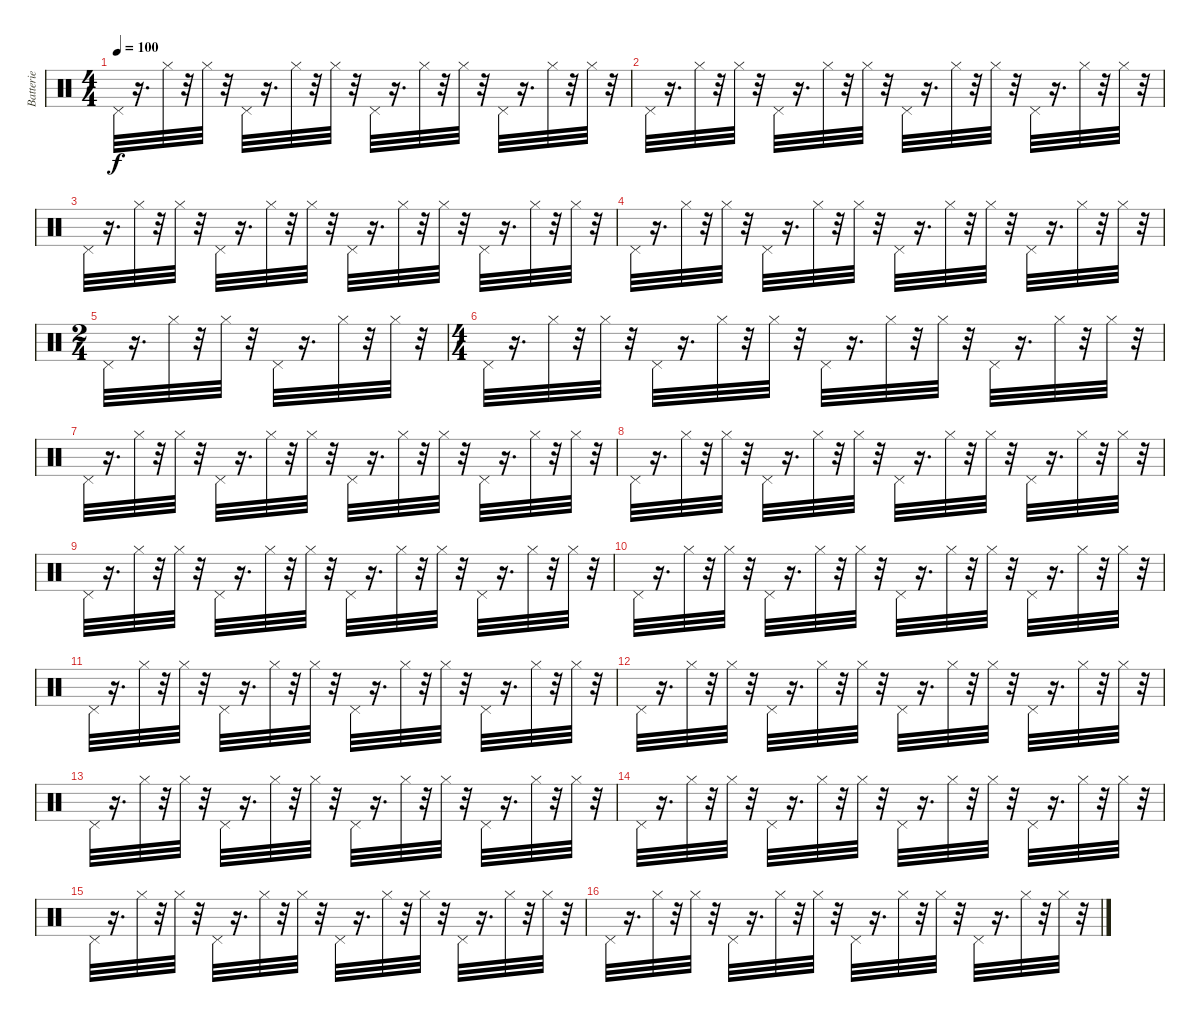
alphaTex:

\track ("Batterie" "Batterie") {instrument percussion}
\staff {score}
\articulation defaults
\ts (4 4)
\tempo 100
\clef neutral
\ks c "Pedal Hi-Hat (hit)".32{dy f}
r.16{d} "Hi-Hat (closed)".32 r.32 "Hi-Hat (closed)".32 r.32 "Pedal Hi-Hat (hit)".32 r.16{d} "Hi-Hat (closed)".32 r.32 "Hi-Hat (closed)".32 r.32 "Pedal Hi-Hat (hit)".32 r.16{d} "Hi-Hat (closed)".32 r.32 "Hi-Hat (closed)".32 r.32 "Pedal Hi-Hat (hit)".32 r.16{d} "Hi-Hat (closed)".32 r.32 "Hi-Hat (closed)".32 r.32 |
"Pedal Hi-Hat (hit)".32 r.16{d} "Hi-Hat (closed)".32 r.32 "Hi-Hat (closed)".32 r.32 "Pedal Hi-Hat (hit)".32 r.16{d} "Hi-Hat (closed)".32 r.32 "Hi-Hat (closed)".32 r.32 "Pedal Hi-Hat (hit)".32 r.16{d} "Hi-Hat (closed)".32 r.32 "Hi-Hat (closed)".32 r.32 "Pedal Hi-Hat (hit)".32 r.16{d} "Hi-Hat (closed)".32 r.32 "Hi-Hat (closed)".32 r.32 |
"Pedal Hi-Hat (hit)".32 r.16{d} "Hi-Hat (closed)".32 r.32 "Hi-Hat (closed)".32 r.32 "Pedal Hi-Hat (hit)".32 r.16{d} "Hi-Hat (closed)".32 r.32 "Hi-Hat (closed)".32 r.32 "Pedal Hi-Hat (hit)".32 r.16{d} "Hi-Hat (closed)".32 r.32 "Hi-Hat (closed)".32 r.32 "Pedal Hi-Hat (hit)".32 r.16{d} "Hi-Hat (closed)".32 r.32 "Hi-Hat (closed)".32 r.32 |
"Pedal Hi-Hat (hit)".32 r.16{d} "Hi-Hat (closed)".32 r.32 "Hi-Hat (closed)".32 r.32 "Pedal Hi-Hat (hit)".32 r.16{d} "Hi-Hat (closed)".32 r.32 "Hi-Hat (closed)".32 r.32 "Pedal Hi-Hat (hit)".32 r.16{d} "Hi-Hat (closed)".32 r.32 "Hi-Hat (closed)".32 r.32 "Pedal Hi-Hat (hit)".32 r.16{d} "Hi-Hat (closed)".32 r.32 "Hi-Hat (closed)".32 r.32 |
\ts (2 4)
"Pedal Hi-Hat (hit)".32 r.16{d} "Hi-Hat (closed)".32 r.32 "Hi-Hat (closed)".32 r.32 "Pedal Hi-Hat (hit)".32 r.16{d} "Hi-Hat (closed)".32 r.32 "Hi-Hat (closed)".32 r.32 |
\ts (4 4)
"Pedal Hi-Hat (hit)".32 r.16{d} "Hi-Hat (closed)".32 r.32 "Hi-Hat (closed)".32 r.32 "Pedal Hi-Hat (hit)".32 r.16{d} "Hi-Hat (closed)".32 r.32 "Hi-Hat (closed)".32 r.32 "Pedal Hi-Hat (hit)".32 r.16{d} "Hi-Hat (closed)".32 r.32 "Hi-Hat (closed)".32 r.32 "Pedal Hi-Hat (hit)".32 r.16{d} "Hi-Hat (closed)".32 r.32 "Hi-Hat (closed)".32 r.32 |
"Pedal Hi-Hat (hit)".32 r.16{d} "Hi-Hat (closed)".32 r.32 "Hi-Hat (closed)".32 r.32 "Pedal Hi-Hat (hit)".32 r.16{d} "Hi-Hat (closed)".32 r.32 "Hi-Hat (closed)".32 r.32 "Pedal Hi-Hat (hit)".32 r.16{d} "Hi-Hat (closed)".32 r.32 "Hi-Hat (closed)".32 r.32 "Pedal Hi-Hat (hit)".32 r.16{d} "Hi-Hat (closed)".32 r.32 "Hi-Hat (closed)".32 r.32 |
"Pedal Hi-Hat (hit)".32 r.16{d} "Hi-Hat (closed)".32 r.32 "Hi-Hat (closed)".32 r.32 "Pedal Hi-Hat (hit)".32 r.16{d} "Hi-Hat (closed)".32 r.32 "Hi-Hat (closed)".32 r.32 "Pedal Hi-Hat (hit)".32 r.16{d} "Hi-Hat (closed)".32 r.32 "Hi-Hat (closed)".32 r.32 "Pedal Hi-Hat (hit)".32 r.16{d} "Hi-Hat (closed)".32 r.32 "Hi-Hat (closed)".32 r.32 |
"Pedal Hi-Hat (hit)".32 r.16{d} "Hi-Hat (closed)".32 r.32 "Hi-Hat (closed)".32 r.32 "Pedal Hi-Hat (hit)".32 r.16{d} "Hi-Hat (closed)".32 r.32 "Hi-Hat (closed)".32 r.32 "Pedal Hi-Hat (hit)".32 r.16{d} "Hi-Hat (closed)".32 r.32 "Hi-Hat (closed)".32 r.32 "Pedal Hi-Hat (hit)".32 r.16{d} "Hi-Hat (closed)".32 r.32 "Hi-Hat (closed)".32 r.32 |
"Pedal Hi-Hat (hit)".32 r.16{d} "Hi-Hat (closed)".32 r.32 "Hi-Hat (closed)".32 r.32 "Pedal Hi-Hat (hit)".32 r.16{d} "Hi-Hat (closed)".32 r.32 "Hi-Hat (closed)".32 r.32 "Pedal Hi-Hat (hit)".32 r.16{d} "Hi-Hat (closed)".32 r.32 "Hi-Hat (closed)".32 r.32 "Pedal Hi-Hat (hit)".32 r.16{d} "Hi-Hat (closed)".32 r.32 "Hi-Hat (closed)".32 r.32 |
"Pedal Hi-Hat (hit)".32 r.16{d} "Hi-Hat (closed)".32 r.32 "Hi-Hat (closed)".32 r.32 "Pedal Hi-Hat (hit)".32 r.16{d} "Hi-Hat (closed)".32 r.32 "Hi-Hat (closed)".32 r.32 "Pedal Hi-Hat (hit)".32 r.16{d} "Hi-Hat (closed)".32 r.32 "Hi-Hat (closed)".32 r.32 "Pedal Hi-Hat (hit)".32 r.16{d} "Hi-Hat (closed)".32 r.32 "Hi-Hat (closed)".32 r.32 |
"Pedal Hi-Hat (hit)".32 r.16{d} "Hi-Hat (closed)".32 r.32 "Hi-Hat (closed)".32 r.32 "Pedal Hi-Hat (hit)".32 r.16{d} "Hi-Hat (closed)".32 r.32 "Hi-Hat (closed)".32 r.32 "Pedal Hi-Hat (hit)".32 r.16{d} "Hi-Hat (closed)".32 r.32 "Hi-Hat (closed)".32 r.32 "Pedal Hi-Hat (hit)".32 r.16{d} "Hi-Hat (closed)".32 r.32 "Hi-Hat (closed)".32 r.32 |
"Pedal Hi-Hat (hit)".32 r.16{d} "Hi-Hat (closed)".32 r.32 "Hi-Hat (closed)".32 r.32 "Pedal Hi-Hat (hit)".32 r.16{d} "Hi-Hat (closed)".32 r.32 "Hi-Hat (closed)".32 r.32 "Pedal Hi-Hat (hit)".32 r.16{d} "Hi-Hat (closed)".32 r.32 "Hi-Hat (closed)".32 r.32 "Pedal Hi-Hat (hit)".32 r.16{d} "Hi-Hat (closed)".32 r.32 "Hi-Hat (closed)".32 r.32 |
"Pedal Hi-Hat (hit)".32 r.16{d} "Hi-Hat (closed)".32 r.32 "Hi-Hat (closed)".32 r.32 "Pedal Hi-Hat (hit)".32 r.16{d} "Hi-Hat (closed)".32 r.32 "Hi-Hat (closed)".32 r.32 "Pedal Hi-Hat (hit)".32 r.16{d} "Hi-Hat (closed)".32 r.32 "Hi-Hat (closed)".32 r.32 "Pedal Hi-Hat (hit)".32 r.16{d} "Hi-Hat (closed)".32 r.32 "Hi-Hat (closed)".32 r.32 |
"Pedal Hi-Hat (hit)".32 r.16{d} "Hi-Hat (closed)".32 r.32 "Hi-Hat (closed)".32 r.32 "Pedal Hi-Hat (hit)".32 r.16{d} "Hi-Hat (closed)".32 r.32 "Hi-Hat (closed)".32 r.32 "Pedal Hi-Hat (hit)".32 r.16{d} "Hi-Hat (closed)".32 r.32 "Hi-Hat (closed)".32 r.32 "Pedal Hi-Hat (hit)".32 r.16{d} "Hi-Hat (closed)".32 r.32 "Hi-Hat (closed)".32 r.32 |
"Pedal Hi-Hat (hit)".32 r.16{d} "Hi-Hat (closed)".32 r.32 "Hi-Hat (closed)".32 r.32 "Pedal Hi-Hat (hit)".32 r.16{d} "Hi-Hat (closed)".32 r.32 "Hi-Hat (closed)".32 r.32 "Pedal Hi-Hat (hit)".32 r.16{d} "Hi-Hat (closed)".32 r.32 "Hi-Hat (closed)".32 r.32 "Pedal Hi-Hat (hit)".32 r.16{d} "Hi-Hat (closed)".32 r.32 "Hi-Hat (closed)".32 r.32
